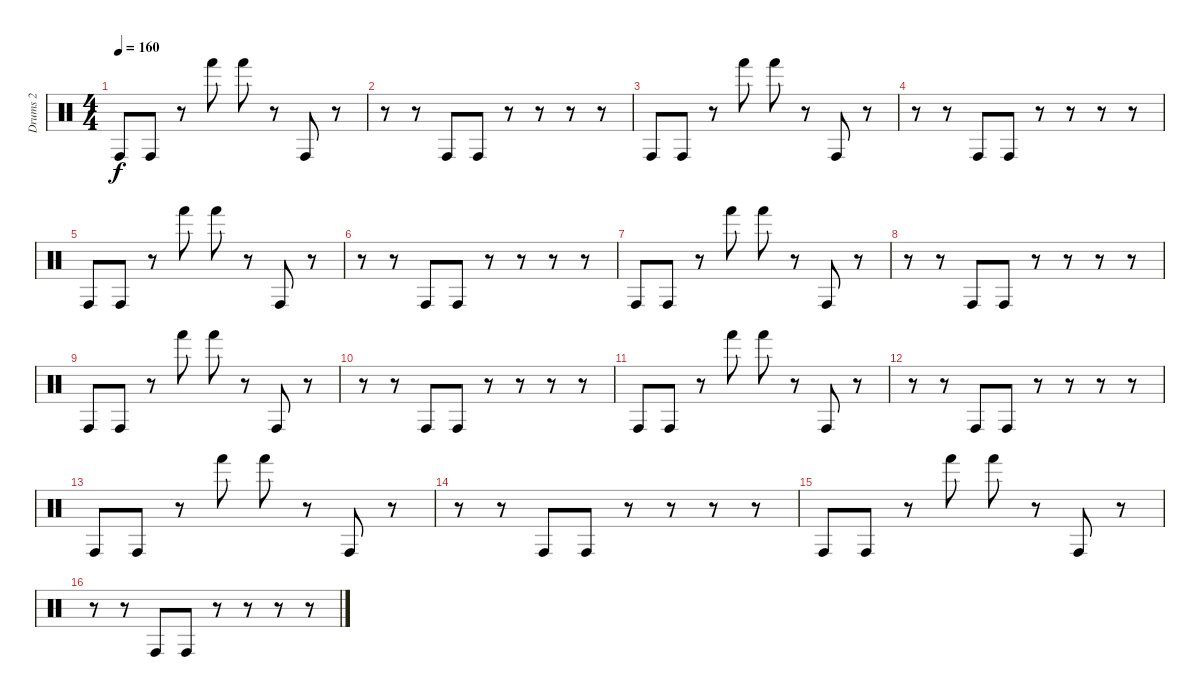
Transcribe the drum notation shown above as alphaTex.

\track ("Drums 2" "Drums 2") {instrument percussion}
\staff {score}
\articulation defaults
\ts (4 4)
\tempo 160
\clef neutral
\ks c "Conga high (hit)".8{dy f} "Conga high (hit)".8
r.8 "Hand (hit)".8 "Hand (hit)".8 r.8 "Conga high (hit)".8 r.8 |
r.8 r.8 "Conga high (hit)".8 "Conga high (hit)".8 r.8 r.8 r.8 r.8 |
"Conga high (hit)".8 "Conga high (hit)".8 r.8 "Hand (hit)".8 "Hand (hit)".8 r.8 "Conga high (hit)".8 r.8 |
r.8 r.8 "Conga high (hit)".8 "Conga high (hit)".8 r.8 r.8 r.8 r.8 |
"Conga high (hit)".8 "Conga high (hit)".8 r.8 "Hand (hit)".8 "Hand (hit)".8 r.8 "Conga high (hit)".8 r.8 |
r.8 r.8 "Conga high (hit)".8 "Conga high (hit)".8 r.8 r.8 r.8 r.8 |
"Conga high (hit)".8 "Conga high (hit)".8 r.8 "Hand (hit)".8 "Hand (hit)".8 r.8 "Conga high (hit)".8 r.8 |
r.8 r.8 "Conga high (hit)".8 "Conga high (hit)".8 r.8 r.8 r.8 r.8 |
"Conga high (hit)".8 "Conga high (hit)".8 r.8 "Hand (hit)".8 "Hand (hit)".8 r.8 "Conga high (hit)".8 r.8 |
r.8 r.8 "Conga high (hit)".8 "Conga high (hit)".8 r.8 r.8 r.8 r.8 |
"Conga high (hit)".8 "Conga high (hit)".8 r.8 "Hand (hit)".8 "Hand (hit)".8 r.8 "Conga high (hit)".8 r.8 |
r.8 r.8 "Conga high (hit)".8 "Conga high (hit)".8 r.8 r.8 r.8 r.8 |
"Conga high (hit)".8 "Conga high (hit)".8 r.8 "Hand (hit)".8 "Hand (hit)".8 r.8 "Conga high (hit)".8 r.8 |
r.8 r.8 "Conga high (hit)".8 "Conga high (hit)".8 r.8 r.8 r.8 r.8 |
"Conga high (hit)".8 "Conga high (hit)".8 r.8 "Hand (hit)".8 "Hand (hit)".8 r.8 "Conga high (hit)".8 r.8 |
r.8 r.8 "Conga high (hit)".8 "Conga high (hit)".8 r.8 r.8 r.8 r.8
